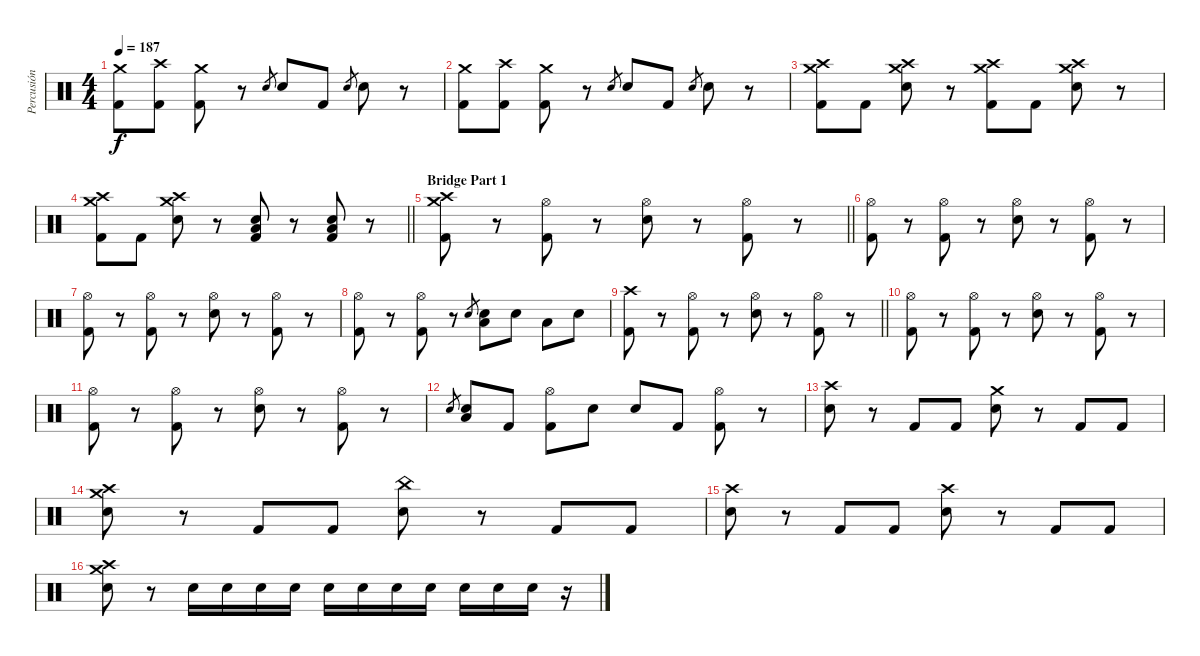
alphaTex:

\track ("Percusión" "Percusión") {instrument percussion}
\staff {score}
\articulation defaults
\ts (4 4)
\tempo 187
\clef neutral
\ks c
("Crash medium (hit)" "Kick (hit) 2").8{dy f} ("Crash high (hit)" "Kick (hit) 2").8 ("Crash medium (hit)" "Kick (hit) 2").8 r.8 "Snare (hit) 2".8{gr} "Snare (hit) 2".8 "Kick (hit) 2".8 "Snare (hit) 2".8{gr} "Snare (hit) 2".8 r.8 |
("Crash medium (hit)" "Kick (hit) 2").8 ("Crash high (hit)" "Kick (hit) 2").8 ("Crash medium (hit)" "Kick (hit) 2").8 r.8 "Snare (hit) 2".8{gr} "Snare (hit) 2".8 "Kick (hit) 2".8 "Snare (hit) 2".8{gr} "Snare (hit) 2".8 r.8 |
("Crash high (hit)" "Crash medium (hit)" "Kick (hit) 2").8 "Kick (hit) 2".8 ("Crash high (hit)" "Crash medium (hit)" "Snare (hit) 2").8 r.8 ("Crash high (hit)" "Crash medium (hit)" "Kick (hit) 2").8 "Kick (hit) 2".8 ("Crash high (hit)" "Crash medium (hit)" "Snare (hit) 2").8 r.8 |
\barLineRight lightlight
("Crash high (hit)" "Crash medium (hit)" "Kick (hit) 2").8 "Kick (hit) 2".8 ("Crash high (hit)" "Crash medium (hit)" "Snare (hit) 2").8 r.8 ("Snare (hit) 2" "Low Tom (hit)" "Kick (hit) 2").8 r.8 ("Snare (hit) 2" "Low Tom (hit)" "Kick (hit) 2").8 r.8 |
\section ("" "Bridge Part 1")
\barLineRight lightlight
("Crash high (hit)" "Crash medium (hit)" "Kick (hit) 2").8 r.8 ("Hi-Hat (open)" "Kick (hit) 2").8 r.8 ("Hi-Hat (open)" "Snare (hit) 2").8 r.8 ("Hi-Hat (open)" "Kick (hit) 2").8 r.8 |
("Hi-Hat (open)" "Kick (hit) 2").8 r.8 ("Hi-Hat (open)" "Kick (hit) 2").8 r.8 ("Hi-Hat (open)" "Snare (hit) 2").8 r.8 ("Hi-Hat (open)" "Kick (hit) 2").8 r.8 |
("Hi-Hat (open)" "Kick (hit) 2").8 r.8 ("Hi-Hat (open)" "Kick (hit) 2").8 r.8 ("Hi-Hat (open)" "Snare (hit) 2").8 r.8 ("Hi-Hat (open)" "Kick (hit) 2").8 r.8 |
("Hi-Hat (open)" "Kick (hit) 2").8 r.8 ("Hi-Hat (open)" "Kick (hit) 2").8 r.8 "Snare (hit) 2".8{gr} ("Snare (hit) 2" "Low Tom (hit)").8 "Snare (hit) 2".8 "Low Tom (hit)".8 "Snare (hit) 2".8 |
\barLineRight lightlight
("Crash high (hit)" "Kick (hit) 2").8 r.8 ("Hi-Hat (open)" "Kick (hit) 2").8 r.8 ("Hi-Hat (open)" "Snare (hit) 2").8 r.8 ("Hi-Hat (open)" "Kick (hit) 2").8 r.8 |
("Hi-Hat (open)" "Kick (hit) 2").8 r.8 ("Hi-Hat (open)" "Kick (hit) 2").8 r.8 ("Hi-Hat (open)" "Snare (hit) 2").8 r.8 ("Hi-Hat (open)" "Kick (hit) 2").8 r.8 |
("Hi-Hat (open)" "Kick (hit) 2").8 r.8 ("Hi-Hat (open)" "Kick (hit) 2").8 r.8 ("Hi-Hat (open)" "Snare (hit) 2").8 r.8 ("Hi-Hat (open)" "Kick (hit) 2").8 r.8 |
"Snare (hit) 2".8{gr} ("Snare (hit) 2" "Low Tom (hit)").8 "Kick (hit) 2".8 ("Hi-Hat (open)" "Kick (hit) 2").8 "Snare (hit) 2".8 "Snare (hit) 2".8 "Kick (hit) 2".8 ("Hi-Hat (open)" "Kick (hit) 2").8 r.8 |
("Crash high (hit)" "Snare (hit) 2").8 r.8 "Kick (hit) 2".8 "Kick (hit) 2".8 ("Crash medium (hit)" "Snare (hit) 2").8 r.8 "Kick (hit) 2".8 "Kick (hit) 2".8 |
("Crash high (hit)" "Crash medium (hit)" "Snare (hit) 2").8 r.8 "Kick (hit) 2".8 "Kick (hit) 2".8 ("China (hit)" "Snare (hit) 2").8 r.8 "Kick (hit) 2".8 "Kick (hit) 2".8 |
("Crash high (hit)" "Snare (hit) 2").8 r.8 "Kick (hit) 2".8 "Kick (hit) 2".8 ("Crash high (hit)" "Snare (hit) 2").8 r.8 "Kick (hit) 2".8 "Kick (hit) 2".8 |
("Crash high (hit)" "Crash medium (hit)" "Snare (hit) 2").8 r.8 "Snare (hit) 2".16 "Snare (hit) 2".16 "Snare (hit) 2".16 "Snare (hit) 2".16 "Snare (hit) 2".16 "Snare (hit) 2".16 "Snare (hit) 2".16 "Snare (hit) 2".16 "Snare (hit) 2".16 "Snare (hit) 2".16 "Snare (hit) 2".16 r.16
